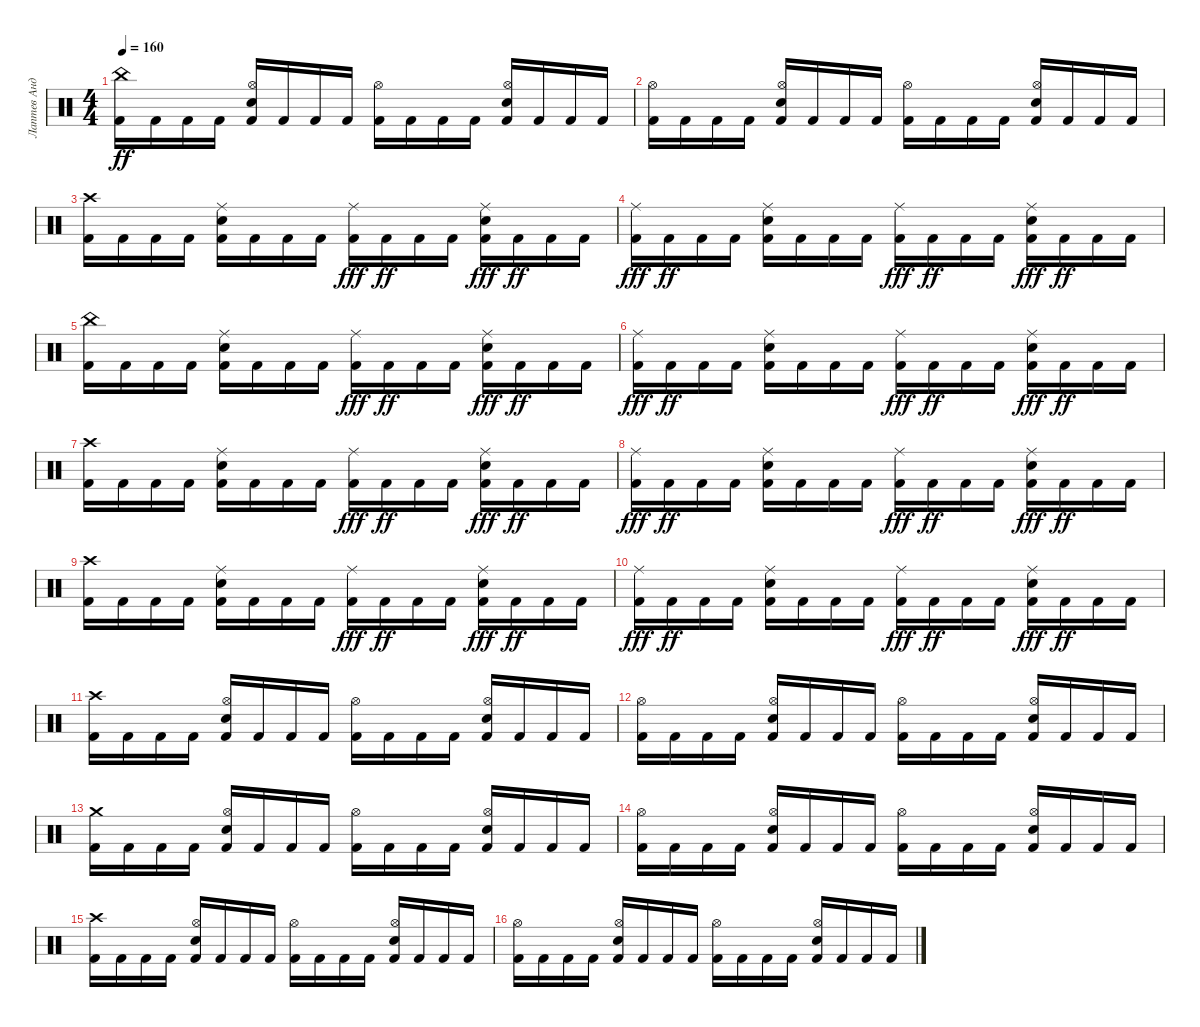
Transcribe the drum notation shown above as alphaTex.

\track ("Лаптев Андрей" "Лаптев Анд") {instrument percussion}
\staff {score}
\articulation defaults
\ts (4 4)
\tempo 160
\clef neutral
\ks c
("China (hit)" "Kick (hit) 2").16{dy ff} "Kick (hit) 2".16 "Kick (hit) 2".16 "Kick (hit) 2".16 ("Hi-Hat (open)" "Kick (hit) 2" "Electric Snare (hit)").16 "Kick (hit) 2".16 "Kick (hit) 2".16 "Kick (hit) 2".16 ("Hi-Hat (open)" "Kick (hit) 2").16 "Kick (hit) 2".16 "Kick (hit) 2".16 "Kick (hit) 2".16 ("Hi-Hat (open)" "Electric Snare (hit)" "Kick (hit) 2").16 "Kick (hit) 2".16 "Kick (hit) 2".16 "Kick (hit) 2".16 |
("Hi-Hat (open)" "Kick (hit) 2").16 "Kick (hit) 2".16 "Kick (hit) 2".16 "Kick (hit) 2".16 ("Kick (hit) 2" "Hi-Hat (open)" "Electric Snare (hit)").16 "Kick (hit) 2".16 "Kick (hit) 2".16 "Kick (hit) 2".16 ("Kick (hit) 2" "Hi-Hat (open)").16 "Kick (hit) 2".16 "Kick (hit) 2".16 "Kick (hit) 2".16 ("Electric Snare (hit)" "Kick (hit) 2" "Hi-Hat (open)").16 "Kick (hit) 2".16 "Kick (hit) 2".16 "Kick (hit) 2".16 |
("Crash high (hit)" "Kick (hit) 2").16 "Kick (hit) 2".16 "Kick (hit) 2".16 "Kick (hit) 2".16 ("Kick (hit) 2" "Ride (middle)" "Electric Snare (hit)").16 "Kick (hit) 2".16 "Kick (hit) 2".16 "Kick (hit) 2".16 ("Kick (hit) 2" "Ride (middle)").16{dy fff} "Kick (hit) 2".16{dy ff} "Kick (hit) 2".16 "Kick (hit) 2".16 ("Kick (hit) 2" "Electric Snare (hit)" "Ride (middle)").16{dy fff} "Kick (hit) 2".16{dy ff} "Kick (hit) 2".16 "Kick (hit) 2".16 |
("Kick (hit) 2" "Ride (middle)").16{dy fff} "Kick (hit) 2".16{dy ff} "Kick (hit) 2".16 "Kick (hit) 2".16 ("Kick (hit) 2" "Ride (middle)" "Electric Snare (hit)").16 "Kick (hit) 2".16 "Kick (hit) 2".16 "Kick (hit) 2".16 ("Kick (hit) 2" "Ride (middle)").16{dy fff} "Kick (hit) 2".16{dy ff} "Kick (hit) 2".16 "Kick (hit) 2".16 ("Electric Snare (hit)" "Kick (hit) 2" "Ride (middle)").16{dy fff} "Kick (hit) 2".16{dy ff} "Kick (hit) 2".16 "Kick (hit) 2".16 |
("China (hit)" "Kick (hit) 2").16 "Kick (hit) 2".16 "Kick (hit) 2".16 "Kick (hit) 2".16 ("Kick (hit) 2" "Ride (middle)" "Electric Snare (hit)").16 "Kick (hit) 2".16 "Kick (hit) 2".16 "Kick (hit) 2".16 ("Kick (hit) 2" "Ride (middle)").16{dy fff} "Kick (hit) 2".16{dy ff} "Kick (hit) 2".16 "Kick (hit) 2".16 ("Kick (hit) 2" "Electric Snare (hit)" "Ride (middle)").16{dy fff} "Kick (hit) 2".16{dy ff} "Kick (hit) 2".16 "Kick (hit) 2".16 |
("Kick (hit) 2" "Ride (middle)").16{dy fff} "Kick (hit) 2".16{dy ff} "Kick (hit) 2".16 "Kick (hit) 2".16 ("Kick (hit) 2" "Ride (middle)" "Electric Snare (hit)").16 "Kick (hit) 2".16 "Kick (hit) 2".16 "Kick (hit) 2".16 ("Kick (hit) 2" "Ride (middle)").16{dy fff} "Kick (hit) 2".16{dy ff} "Kick (hit) 2".16 "Kick (hit) 2".16 ("Electric Snare (hit)" "Kick (hit) 2" "Ride (middle)").16{dy fff} "Kick (hit) 2".16{dy ff} "Kick (hit) 2".16 "Kick (hit) 2".16 |
("Crash high (hit)" "Kick (hit) 2").16 "Kick (hit) 2".16 "Kick (hit) 2".16 "Kick (hit) 2".16 ("Kick (hit) 2" "Ride (middle)" "Electric Snare (hit)").16 "Kick (hit) 2".16 "Kick (hit) 2".16 "Kick (hit) 2".16 ("Kick (hit) 2" "Ride (middle)").16{dy fff} "Kick (hit) 2".16{dy ff} "Kick (hit) 2".16 "Kick (hit) 2".16 ("Kick (hit) 2" "Electric Snare (hit)" "Ride (middle)").16{dy fff} "Kick (hit) 2".16{dy ff} "Kick (hit) 2".16 "Kick (hit) 2".16 |
("Kick (hit) 2" "Ride (middle)").16{dy fff} "Kick (hit) 2".16{dy ff} "Kick (hit) 2".16 "Kick (hit) 2".16 ("Kick (hit) 2" "Ride (middle)" "Electric Snare (hit)").16 "Kick (hit) 2".16 "Kick (hit) 2".16 "Kick (hit) 2".16 ("Kick (hit) 2" "Ride (middle)").16{dy fff} "Kick (hit) 2".16{dy ff} "Kick (hit) 2".16 "Kick (hit) 2".16 ("Electric Snare (hit)" "Kick (hit) 2" "Ride (middle)").16{dy fff} "Kick (hit) 2".16{dy ff} "Kick (hit) 2".16 "Kick (hit) 2".16 |
("Crash high (hit)" "Kick (hit) 2").16 "Kick (hit) 2".16 "Kick (hit) 2".16 "Kick (hit) 2".16 ("Kick (hit) 2" "Ride (middle)" "Electric Snare (hit)").16 "Kick (hit) 2".16 "Kick (hit) 2".16 "Kick (hit) 2".16 ("Kick (hit) 2" "Ride (middle)").16{dy fff} "Kick (hit) 2".16{dy ff} "Kick (hit) 2".16 "Kick (hit) 2".16 ("Kick (hit) 2" "Electric Snare (hit)" "Ride (middle)").16{dy fff} "Kick (hit) 2".16{dy ff} "Kick (hit) 2".16 "Kick (hit) 2".16 |
("Kick (hit) 2" "Ride (middle)").16{dy fff} "Kick (hit) 2".16{dy ff} "Kick (hit) 2".16 "Kick (hit) 2".16 ("Kick (hit) 2" "Ride (middle)" "Electric Snare (hit)").16 "Kick (hit) 2".16 "Kick (hit) 2".16 "Kick (hit) 2".16 ("Kick (hit) 2" "Ride (middle)").16{dy fff} "Kick (hit) 2".16{dy ff} "Kick (hit) 2".16 "Kick (hit) 2".16 ("Electric Snare (hit)" "Kick (hit) 2" "Ride (middle)").16{dy fff} "Kick (hit) 2".16{dy ff} "Kick (hit) 2".16 "Kick (hit) 2".16 |
("Crash high (hit)" "Kick (hit) 2").16 "Kick (hit) 2".16 "Kick (hit) 2".16 "Kick (hit) 2".16 ("Hi-Hat (open)" "Kick (hit) 2" "Electric Snare (hit)").16 "Kick (hit) 2".16 "Kick (hit) 2".16 "Kick (hit) 2".16 ("Hi-Hat (open)" "Kick (hit) 2").16 "Kick (hit) 2".16 "Kick (hit) 2".16 "Kick (hit) 2".16 ("Hi-Hat (open)" "Electric Snare (hit)" "Kick (hit) 2").16 "Kick (hit) 2".16 "Kick (hit) 2".16 "Kick (hit) 2".16 |
("Hi-Hat (open)" "Kick (hit) 2").16 "Kick (hit) 2".16 "Kick (hit) 2".16 "Kick (hit) 2".16 ("Kick (hit) 2" "Hi-Hat (open)" "Electric Snare (hit)").16 "Kick (hit) 2".16 "Kick (hit) 2".16 "Kick (hit) 2".16 ("Kick (hit) 2" "Hi-Hat (open)").16 "Kick (hit) 2".16 "Kick (hit) 2".16 "Kick (hit) 2".16 ("Electric Snare (hit)" "Kick (hit) 2" "Hi-Hat (open)").16 "Kick (hit) 2".16 "Kick (hit) 2".16 "Kick (hit) 2".16 |
("Crash medium (hit)" "Kick (hit) 2").16 "Kick (hit) 2".16 "Kick (hit) 2".16 "Kick (hit) 2".16 ("Hi-Hat (open)" "Kick (hit) 2" "Electric Snare (hit)").16 "Kick (hit) 2".16 "Kick (hit) 2".16 "Kick (hit) 2".16 ("Hi-Hat (open)" "Kick (hit) 2").16 "Kick (hit) 2".16 "Kick (hit) 2".16 "Kick (hit) 2".16 ("Hi-Hat (open)" "Electric Snare (hit)" "Kick (hit) 2").16 "Kick (hit) 2".16 "Kick (hit) 2".16 "Kick (hit) 2".16 |
("Hi-Hat (open)" "Kick (hit) 2").16 "Kick (hit) 2".16 "Kick (hit) 2".16 "Kick (hit) 2".16 ("Kick (hit) 2" "Hi-Hat (open)" "Electric Snare (hit)").16 "Kick (hit) 2".16 "Kick (hit) 2".16 "Kick (hit) 2".16 ("Kick (hit) 2" "Hi-Hat (open)").16 "Kick (hit) 2".16 "Kick (hit) 2".16 "Kick (hit) 2".16 ("Electric Snare (hit)" "Kick (hit) 2" "Hi-Hat (open)").16 "Kick (hit) 2".16 "Kick (hit) 2".16 "Kick (hit) 2".16 |
("Crash high (hit)" "Kick (hit) 2").16 "Kick (hit) 2".16 "Kick (hit) 2".16 "Kick (hit) 2".16 ("Hi-Hat (open)" "Kick (hit) 2" "Electric Snare (hit)").16 "Kick (hit) 2".16 "Kick (hit) 2".16 "Kick (hit) 2".16 ("Hi-Hat (open)" "Kick (hit) 2").16 "Kick (hit) 2".16 "Kick (hit) 2".16 "Kick (hit) 2".16 ("Hi-Hat (open)" "Electric Snare (hit)" "Kick (hit) 2").16 "Kick (hit) 2".16 "Kick (hit) 2".16 "Kick (hit) 2".16 |
("Hi-Hat (open)" "Kick (hit) 2").16 "Kick (hit) 2".16 "Kick (hit) 2".16 "Kick (hit) 2".16 ("Kick (hit) 2" "Hi-Hat (open)" "Electric Snare (hit)").16 "Kick (hit) 2".16 "Kick (hit) 2".16 "Kick (hit) 2".16 ("Kick (hit) 2" "Hi-Hat (open)").16 "Kick (hit) 2".16 "Kick (hit) 2".16 "Kick (hit) 2".16 ("Electric Snare (hit)" "Kick (hit) 2" "Hi-Hat (open)").16 "Kick (hit) 2".16 "Kick (hit) 2".16 "Kick (hit) 2".16
